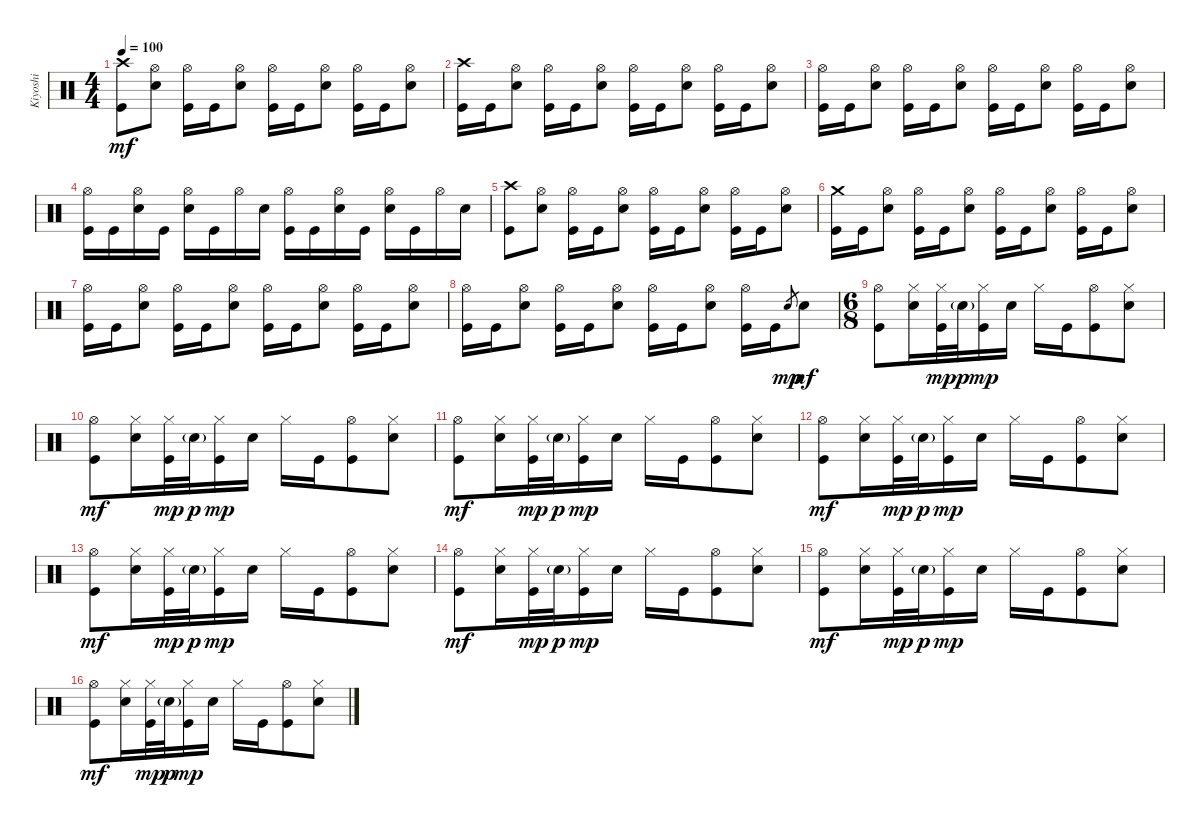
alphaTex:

\track ("Kiyoshi" "Kiyoshi") {instrument percussion}
\staff {score}
\articulation defaults
\ts (4 4)
\tempo 100
\clef neutral
\ks c
("Crash high (hit)" "Kick (hit)").8{dy mf} ("Hi-Hat (open)" "Electric Snare (hit)").8 ("Kick (hit)" "Hi-Hat (open)").16 "Kick (hit)".16 ("Hi-Hat (open)" "Electric Snare (hit)").8 ("Kick (hit)" "Hi-Hat (open)").16 "Kick (hit)".16 ("Hi-Hat (open)" "Electric Snare (hit)").8 ("Kick (hit)" "Hi-Hat (open)").16 "Kick (hit)".16 ("Hi-Hat (open)" "Electric Snare (hit)").8 |
("Crash high (hit)" "Kick (hit)").16 "Kick (hit)".16 ("Hi-Hat (open)" "Electric Snare (hit)").8 ("Kick (hit)" "Hi-Hat (open)").16 "Kick (hit)".16 ("Hi-Hat (open)" "Electric Snare (hit)").8 ("Kick (hit)" "Hi-Hat (open)").16 "Kick (hit)".16 ("Hi-Hat (open)" "Electric Snare (hit)").8 ("Kick (hit)" "Hi-Hat (open)").16 "Kick (hit)".16 ("Hi-Hat (open)" "Electric Snare (hit)").8 |
("Kick (hit)" "Hi-Hat (open)").16 "Kick (hit)".16 ("Hi-Hat (open)" "Electric Snare (hit)").8 ("Kick (hit)" "Hi-Hat (open)").16 "Kick (hit)".16 ("Hi-Hat (open)" "Electric Snare (hit)").8 ("Kick (hit)" "Hi-Hat (open)").16 "Kick (hit)".16 ("Hi-Hat (open)" "Electric Snare (hit)").8 ("Kick (hit)" "Hi-Hat (open)").16 "Kick (hit)".16 ("Hi-Hat (open)" "Electric Snare (hit)").8 |
("Kick (hit)" "Hi-Hat (open)").16 "Kick (hit)".16 ("Hi-Hat (open)" "Electric Snare (hit)").16 "Kick (hit)".16 ("Electric Snare (hit)" "Hi-Hat (open)").16 "Kick (hit)".16 "Hi-Hat (open)".16 "Electric Snare (hit)".16 ("Kick (hit)" "Hi-Hat (open)").16 "Kick (hit)".16 ("Electric Snare (hit)" "Hi-Hat (open)").16 "Kick (hit)".16 ("Electric Snare (hit)" "Hi-Hat (open)").16 "Kick (hit)".16 "Hi-Hat (open)".16 "Electric Snare (hit)".16 |
("Crash high (hit)" "Kick (hit)").8 ("Hi-Hat (open)" "Electric Snare (hit)").8 ("Kick (hit)" "Hi-Hat (open)").16 "Kick (hit)".16 ("Hi-Hat (open)" "Electric Snare (hit)").8 ("Kick (hit)" "Hi-Hat (open)").16 "Kick (hit)".16 ("Hi-Hat (open)" "Electric Snare (hit)").8 ("Kick (hit)" "Hi-Hat (open)").16 "Kick (hit)".16 ("Hi-Hat (open)" "Electric Snare (hit)").8 |
("Crash medium (hit)" "Kick (hit)").16 "Kick (hit)".16 ("Hi-Hat (open)" "Electric Snare (hit)").8 ("Kick (hit)" "Hi-Hat (open)").16 "Kick (hit)".16 ("Hi-Hat (open)" "Electric Snare (hit)").8 ("Kick (hit)" "Hi-Hat (open)").16 "Kick (hit)".16 ("Hi-Hat (open)" "Electric Snare (hit)").8 ("Kick (hit)" "Hi-Hat (open)").16 "Kick (hit)".16 ("Hi-Hat (open)" "Electric Snare (hit)").8 |
("Kick (hit)" "Hi-Hat (open)").16 "Kick (hit)".16 ("Hi-Hat (open)" "Electric Snare (hit)").8 ("Kick (hit)" "Hi-Hat (open)").16 "Kick (hit)".16 ("Hi-Hat (open)" "Electric Snare (hit)").8 ("Kick (hit)" "Hi-Hat (open)").16 "Kick (hit)".16 ("Hi-Hat (open)" "Electric Snare (hit)").8 ("Kick (hit)" "Hi-Hat (open)").16 "Kick (hit)".16 ("Hi-Hat (open)" "Electric Snare (hit)").8 |
("Kick (hit)" "Hi-Hat (open)").16 "Kick (hit)".16 ("Hi-Hat (open)" "Electric Snare (hit)").8 ("Kick (hit)" "Hi-Hat (open)").16 "Kick (hit)".16 ("Hi-Hat (open)" "Electric Snare (hit)").8 ("Kick (hit)" "Hi-Hat (open)").16 "Kick (hit)".16 ("Hi-Hat (open)" "Electric Snare (hit)").8 ("Kick (hit)" "Hi-Hat (open)").16 "Kick (hit)".16 "Electric Snare (hit)".8{gr dy mp} "Electric Snare (hit)".8{dy mf} |
\ts (6 8)
("Kick (hit)" "Hi-Hat (open)").8 ("Electric Snare (hit)" "Hi-Hat (closed)").16 ("Hi-Hat (closed)" "Kick (hit)").32{dy mp} "Electric Snare (hit)"{g}.32{dy p} ("Hi-Hat (closed)" "Kick (hit)").16{dy mp} "Electric Snare (hit)".16 "Hi-Hat (closed)".16 "Kick (hit)".16 ("Kick (hit)" "Hi-Hat (open)").8 ("Hi-Hat (closed)" "Electric Snare (hit)").8 |
("Kick (hit)" "Hi-Hat (open)").8{dy mf} ("Electric Snare (hit)" "Hi-Hat (closed)").16 ("Hi-Hat (closed)" "Kick (hit)").32{dy mp} "Electric Snare (hit)"{g}.32{dy p} ("Hi-Hat (closed)" "Kick (hit)").16{dy mp} "Electric Snare (hit)".16 "Hi-Hat (closed)".16 "Kick (hit)".16 ("Kick (hit)" "Hi-Hat (open)").8 ("Hi-Hat (closed)" "Electric Snare (hit)").8 |
("Kick (hit)" "Hi-Hat (open)").8{dy mf} ("Electric Snare (hit)" "Hi-Hat (closed)").16 ("Hi-Hat (closed)" "Kick (hit)").32{dy mp} "Electric Snare (hit)"{g}.32{dy p} ("Hi-Hat (closed)" "Kick (hit)").16{dy mp} "Electric Snare (hit)".16 "Hi-Hat (closed)".16 "Kick (hit)".16 ("Kick (hit)" "Hi-Hat (open)").8 ("Hi-Hat (closed)" "Electric Snare (hit)").8 |
("Kick (hit)" "Hi-Hat (open)").8{dy mf} ("Electric Snare (hit)" "Hi-Hat (closed)").16 ("Hi-Hat (closed)" "Kick (hit)").32{dy mp} "Electric Snare (hit)"{g}.32{dy p} ("Hi-Hat (closed)" "Kick (hit)").16{dy mp} "Electric Snare (hit)".16 "Hi-Hat (closed)".16 "Kick (hit)".16 ("Kick (hit)" "Hi-Hat (open)").8 ("Hi-Hat (closed)" "Electric Snare (hit)").8 |
("Kick (hit)" "Hi-Hat (open)").8{dy mf} ("Electric Snare (hit)" "Hi-Hat (closed)").16 ("Hi-Hat (closed)" "Kick (hit)").32{dy mp} "Electric Snare (hit)"{g}.32{dy p} ("Hi-Hat (closed)" "Kick (hit)").16{dy mp} "Electric Snare (hit)".16 "Hi-Hat (closed)".16 "Kick (hit)".16 ("Kick (hit)" "Hi-Hat (open)").8 ("Hi-Hat (closed)" "Electric Snare (hit)").8 |
("Kick (hit)" "Hi-Hat (open)").8{dy mf} ("Electric Snare (hit)" "Hi-Hat (closed)").16 ("Hi-Hat (closed)" "Kick (hit)").32{dy mp} "Electric Snare (hit)"{g}.32{dy p} ("Hi-Hat (closed)" "Kick (hit)").16{dy mp} "Electric Snare (hit)".16 "Hi-Hat (closed)".16 "Kick (hit)".16 ("Kick (hit)" "Hi-Hat (open)").8 ("Hi-Hat (closed)" "Electric Snare (hit)").8 |
("Kick (hit)" "Hi-Hat (open)").8{dy mf} ("Electric Snare (hit)" "Hi-Hat (closed)").16 ("Hi-Hat (closed)" "Kick (hit)").32{dy mp} "Electric Snare (hit)"{g}.32{dy p} ("Hi-Hat (closed)" "Kick (hit)").16{dy mp} "Electric Snare (hit)".16 "Hi-Hat (closed)".16 "Kick (hit)".16 ("Kick (hit)" "Hi-Hat (open)").8 ("Hi-Hat (closed)" "Electric Snare (hit)").8 |
("Kick (hit)" "Hi-Hat (open)").8{dy mf} ("Electric Snare (hit)" "Hi-Hat (closed)").16 ("Hi-Hat (closed)" "Kick (hit)").32{dy mp} "Electric Snare (hit)"{g}.32{dy p} ("Hi-Hat (closed)" "Kick (hit)").16{dy mp} "Electric Snare (hit)".16 "Hi-Hat (closed)".16 "Kick (hit)".16 ("Kick (hit)" "Hi-Hat (open)").8 ("Hi-Hat (closed)" "Electric Snare (hit)").8
